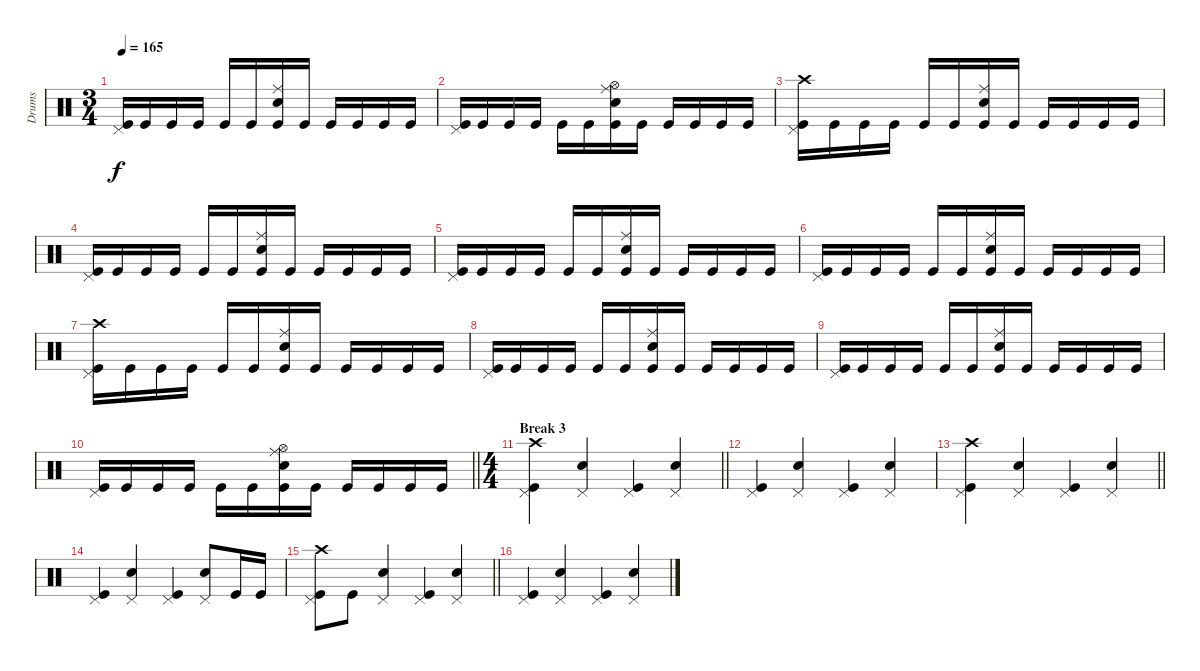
\track ("Drums" "Drums") {instrument percussion}
\staff {score}
\articulation defaults
\ts (3 4)
\tempo 165
\clef neutral
\ks c
("Pedal Hi-Hat (hit)" "Kick (hit)").16{dy f} "Kick (hit)".16 "Kick (hit)".16 "Kick (hit)".16 "Kick (hit)".16 "Kick (hit)".16 ("Ride (middle)" "Snare (hit) 2" "Kick (hit)").16 "Kick (hit)".16 "Kick (hit)".16 "Kick (hit)".16 "Kick (hit)".16 "Kick (hit)".16 |
("Pedal Hi-Hat (hit)" "Kick (hit)").16 "Kick (hit)".16 "Kick (hit)".16 "Kick (hit)".16 "Kick (hit)".16 "Kick (hit)".16 ("Hi-Hat (open)" "Ride (middle)" "Snare (hit) 2" "Kick (hit)").16 "Kick (hit)".16 "Kick (hit)".16 "Kick (hit)".16 "Kick (hit)".16 "Kick (hit)".16 |
("Crash high (hit)" "Pedal Hi-Hat (hit)" "Kick (hit)").16 "Kick (hit)".16 "Kick (hit)".16 "Kick (hit)".16 "Kick (hit)".16 "Kick (hit)".16 ("Ride (middle)" "Snare (hit) 2" "Kick (hit)").16 "Kick (hit)".16 "Kick (hit)".16 "Kick (hit)".16 "Kick (hit)".16 "Kick (hit)".16 |
("Pedal Hi-Hat (hit)" "Kick (hit)").16 "Kick (hit)".16 "Kick (hit)".16 "Kick (hit)".16 "Kick (hit)".16 "Kick (hit)".16 ("Ride (middle)" "Snare (hit) 2" "Kick (hit)").16 "Kick (hit)".16 "Kick (hit)".16 "Kick (hit)".16 "Kick (hit)".16 "Kick (hit)".16 |
("Pedal Hi-Hat (hit)" "Kick (hit)").16 "Kick (hit)".16 "Kick (hit)".16 "Kick (hit)".16 "Kick (hit)".16 "Kick (hit)".16 ("Ride (middle)" "Snare (hit) 2" "Kick (hit)").16 "Kick (hit)".16 "Kick (hit)".16 "Kick (hit)".16 "Kick (hit)".16 "Kick (hit)".16 |
("Pedal Hi-Hat (hit)" "Kick (hit)").16 "Kick (hit)".16 "Kick (hit)".16 "Kick (hit)".16 "Kick (hit)".16 "Kick (hit)".16 ("Ride (middle)" "Snare (hit) 2" "Kick (hit)").16 "Kick (hit)".16 "Kick (hit)".16 "Kick (hit)".16 "Kick (hit)".16 "Kick (hit)".16 |
("Crash high (hit)" "Pedal Hi-Hat (hit)" "Kick (hit)").16 "Kick (hit)".16 "Kick (hit)".16 "Kick (hit)".16 "Kick (hit)".16 "Kick (hit)".16 ("Ride (middle)" "Snare (hit) 2" "Kick (hit)").16 "Kick (hit)".16 "Kick (hit)".16 "Kick (hit)".16 "Kick (hit)".16 "Kick (hit)".16 |
("Pedal Hi-Hat (hit)" "Kick (hit)").16 "Kick (hit)".16 "Kick (hit)".16 "Kick (hit)".16 "Kick (hit)".16 "Kick (hit)".16 ("Ride (middle)" "Snare (hit) 2" "Kick (hit)").16 "Kick (hit)".16 "Kick (hit)".16 "Kick (hit)".16 "Kick (hit)".16 "Kick (hit)".16 |
("Pedal Hi-Hat (hit)" "Kick (hit)").16 "Kick (hit)".16 "Kick (hit)".16 "Kick (hit)".16 "Kick (hit)".16 "Kick (hit)".16 ("Ride (middle)" "Snare (hit) 2" "Kick (hit)").16 "Kick (hit)".16 "Kick (hit)".16 "Kick (hit)".16 "Kick (hit)".16 "Kick (hit)".16 |
\barLineRight lightlight
("Pedal Hi-Hat (hit)" "Kick (hit)").16 "Kick (hit)".16 "Kick (hit)".16 "Kick (hit)".16 "Kick (hit)".16 "Kick (hit)".16 ("Hi-Hat (open)" "Ride (middle)" "Snare (hit) 2" "Kick (hit)").16 "Kick (hit)".16 "Kick (hit)".16 "Kick (hit)".16 "Kick (hit)".16 "Kick (hit)".16 |
\ts (4 4)
\section ("" "Break 3")
\barLineRight lightlight
("Crash high (hit)" "Pedal Hi-Hat (hit)" "Kick (hit)").4 ("Pedal Hi-Hat (hit)" "Snare (hit) 2").4 ("Pedal Hi-Hat (hit)" "Kick (hit)").4 ("Pedal Hi-Hat (hit)" "Snare (hit) 2").4 |
("Pedal Hi-Hat (hit)" "Kick (hit)").4 ("Pedal Hi-Hat (hit)" "Snare (hit) 2").4 ("Pedal Hi-Hat (hit)" "Kick (hit)").4 ("Pedal Hi-Hat (hit)" "Snare (hit) 2").4 |
\barLineRight lightlight
("Crash high (hit)" "Pedal Hi-Hat (hit)" "Kick (hit)").4 ("Pedal Hi-Hat (hit)" "Snare (hit) 2").4 ("Pedal Hi-Hat (hit)" "Kick (hit)").4 ("Pedal Hi-Hat (hit)" "Snare (hit) 2").4 |
("Pedal Hi-Hat (hit)" "Kick (hit)").4 ("Pedal Hi-Hat (hit)" "Snare (hit) 2").4 ("Pedal Hi-Hat (hit)" "Kick (hit)").4 ("Pedal Hi-Hat (hit)" "Snare (hit) 2").8 "Kick (hit)".16 "Kick (hit)".16 |
\barLineRight lightlight
("Crash high (hit)" "Pedal Hi-Hat (hit)" "Kick (hit)").8 "Kick (hit)".8 ("Pedal Hi-Hat (hit)" "Snare (hit) 2").4 ("Pedal Hi-Hat (hit)" "Kick (hit)").4 ("Pedal Hi-Hat (hit)" "Snare (hit) 2").4 |
("Pedal Hi-Hat (hit)" "Kick (hit)").4 ("Pedal Hi-Hat (hit)" "Snare (hit) 2").4 ("Pedal Hi-Hat (hit)" "Kick (hit)").4 ("Pedal Hi-Hat (hit)" "Snare (hit) 2").4
